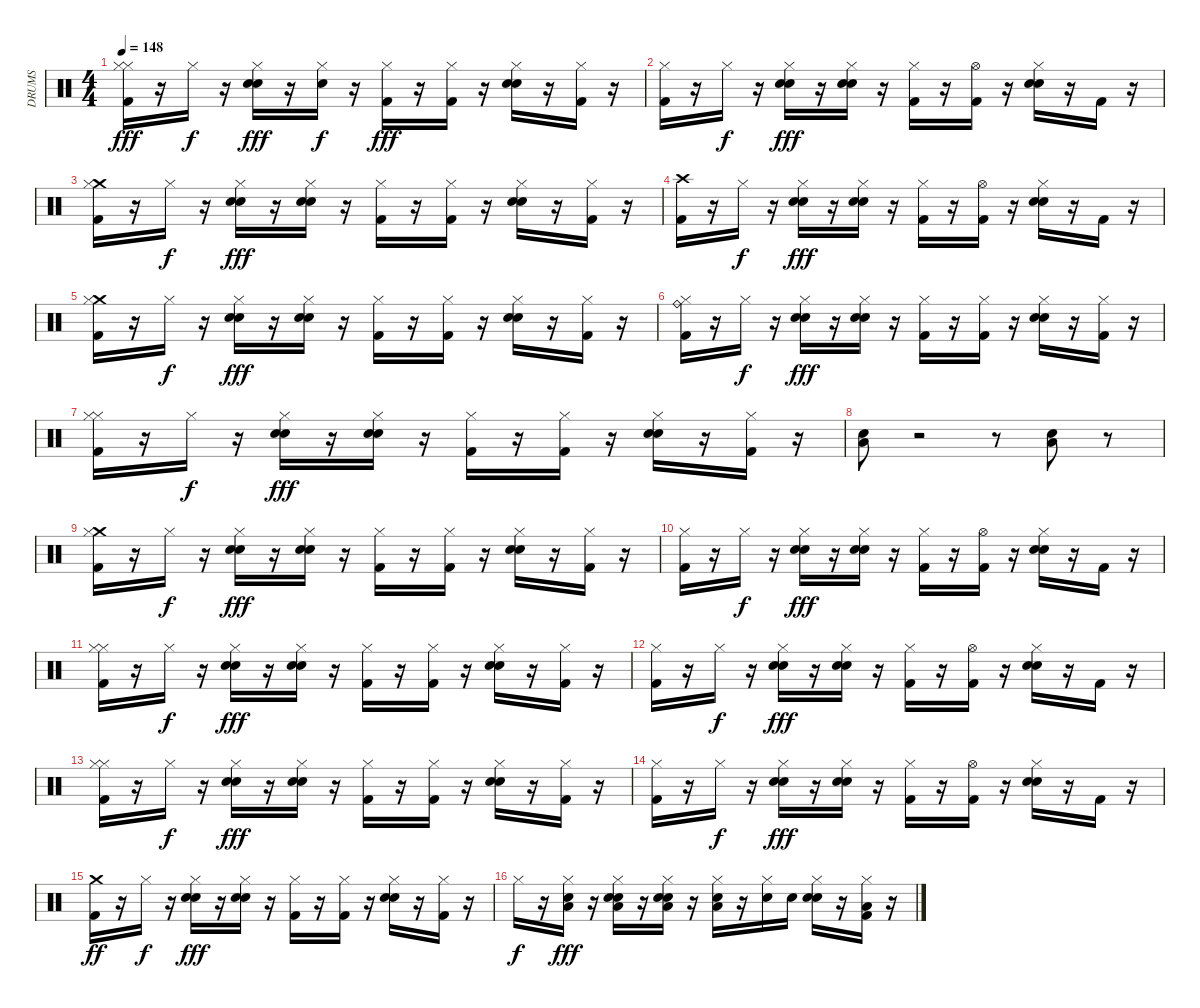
\track ("DRUMS" "DRUMS") {instrument percussion}
\staff {score}
\articulation defaults
\ts (4 4)
\tempo 148
\clef neutral
\ks c
("Hi-Hat (closed)" "Kick (hit) 2" "Hi-Hat (closed)").16{dy fff} r.16 "Hi-Hat (closed)".16{dy f} r.16 ("Hi-Hat (closed)" "Hand Clap (hit)" "Snare (hit) 2").16{dy fff} r.16 ("Hand Clap (hit)" "Hi-Hat (closed)").16{dy f} r.16 ("Hi-Hat (closed)" "Kick (hit) 2").16{dy fff} r.16 ("Hi-Hat (closed)" "Kick (hit) 2").16 r.16 ("Hi-Hat (closed)" "Hand Clap (hit)" "Snare (hit) 2").16 r.16 ("Hi-Hat (closed)" "Kick (hit) 2").16 r.16 |
("Hi-Hat (closed)" "Kick (hit) 2").16 r.16 "Hi-Hat (closed)".16{dy f} r.16 ("Hi-Hat (closed)" "Hand Clap (hit)" "Snare (hit) 2").16{dy fff} r.16 ("Hi-Hat (closed)" "Hand Clap (hit)" "Snare (hit) 2").16 r.16 ("Hi-Hat (closed)" "Kick (hit) 2").16 r.16 ("Hi-Hat (open)" "Kick (hit) 2").16 r.16 ("Hand Clap (hit)" "Snare (hit) 2" "Hi-Hat (closed)").16 r.16 "Kick (hit) 2".16 r.16 |
("Crash medium (hit)" "Kick (hit) 2" "Hi-Hat (closed)").16 r.16 "Hi-Hat (closed)".16{dy f} r.16 ("Hi-Hat (closed)" "Hand Clap (hit)" "Snare (hit) 2").16{dy fff} r.16 ("Snare (hit) 2" "Hand Clap (hit)" "Hi-Hat (closed)").16 r.16 ("Hi-Hat (closed)" "Kick (hit) 2").16 r.16 ("Hi-Hat (closed)" "Kick (hit) 2").16 r.16 ("Hi-Hat (closed)" "Hand Clap (hit)" "Snare (hit) 2").16 r.16 ("Hi-Hat (closed)" "Kick (hit) 2").16 r.16 |
("Crash high (hit)" "Kick (hit) 2").16 r.16 "Hi-Hat (closed)".16{dy f} r.16 ("Hi-Hat (closed)" "Hand Clap (hit)" "Snare (hit) 2").16{dy fff} r.16 ("Hi-Hat (closed)" "Hand Clap (hit)" "Snare (hit) 2").16 r.16 ("Hi-Hat (closed)" "Kick (hit) 2").16 r.16 ("Hi-Hat (open)" "Kick (hit) 2").16 r.16 ("Hand Clap (hit)" "Snare (hit) 2" "Hi-Hat (closed)").16 r.16 "Kick (hit) 2".16 r.16 |
("Crash medium (hit)" "Kick (hit) 2" "Hi-Hat (closed)").16 r.16 "Hi-Hat (closed)".16{dy f} r.16 ("Hi-Hat (closed)" "Hand Clap (hit)" "Snare (hit) 2").16{dy fff} r.16 ("Snare (hit) 2" "Hand Clap (hit)" "Hi-Hat (closed)").16 r.16 ("Hi-Hat (closed)" "Kick (hit) 2").16 r.16 ("Hi-Hat (closed)" "Kick (hit) 2").16 r.16 ("Hi-Hat (closed)" "Hand Clap (hit)" "Snare (hit) 2").16 r.16 ("Hi-Hat (closed)" "Kick (hit) 2").16 r.16 |
("Ride (bell)" "Kick (hit) 2" "Hi-Hat (closed)").16 r.16 "Hi-Hat (closed)".16{dy f} r.16 ("Hi-Hat (closed)" "Hand Clap (hit)" "Snare (hit) 2").16{dy fff} r.16 ("Snare (hit) 2" "Hand Clap (hit)" "Hi-Hat (closed)").16 r.16 ("Hi-Hat (closed)" "Kick (hit) 2").16 r.16 ("Hi-Hat (closed)" "Kick (hit) 2").16 r.16 ("Hi-Hat (closed)" "Hand Clap (hit)" "Snare (hit) 2").16 r.16 ("Hi-Hat (closed)" "Kick (hit) 2").16 r.16 |
("Hi-Hat (closed)" "Kick (hit) 2" "Hi-Hat (closed)").16 r.16 "Hi-Hat (closed)".16{dy f} r.16 ("Hi-Hat (closed)" "Hand Clap (hit)" "Snare (hit) 2").16{dy fff} r.16 ("Snare (hit) 2" "Hand Clap (hit)" "Hi-Hat (closed)").16 r.16 ("Hi-Hat (closed)" "Kick (hit) 2").16 r.16 ("Hi-Hat (closed)" "Kick (hit) 2").16 r.16 ("Hi-Hat (closed)" "Hand Clap (hit)" "Snare (hit) 2").16 r.16 ("Hi-Hat (closed)" "Kick (hit) 2").16 r.16 |
("Snare (hit) 2" "Low Floor Tom (hit)").8 r.2 r.8 ("Low Floor Tom (hit)" "Snare (hit) 2").8 r.8 |
("Crash medium (hit)" "Kick (hit) 2" "Hi-Hat (closed)").16 r.16 "Hi-Hat (closed)".16{dy f} r.16 ("Hi-Hat (closed)" "Hand Clap (hit)" "Snare (hit) 2").16{dy fff} r.16 ("Snare (hit) 2" "Hand Clap (hit)" "Hi-Hat (closed)").16 r.16 ("Hi-Hat (closed)" "Kick (hit) 2").16 r.16 ("Hi-Hat (closed)" "Kick (hit) 2").16 r.16 ("Hi-Hat (closed)" "Hand Clap (hit)" "Snare (hit) 2").16 r.16 ("Hi-Hat (closed)" "Kick (hit) 2").16 r.16 |
("Hi-Hat (closed)" "Kick (hit) 2").16 r.16 "Hi-Hat (closed)".16{dy f} r.16 ("Hi-Hat (closed)" "Hand Clap (hit)" "Snare (hit) 2").16{dy fff} r.16 ("Hi-Hat (closed)" "Hand Clap (hit)" "Snare (hit) 2").16 r.16 ("Hi-Hat (closed)" "Kick (hit) 2").16 r.16 ("Hi-Hat (open)" "Kick (hit) 2").16 r.16 ("Hand Clap (hit)" "Snare (hit) 2" "Hi-Hat (closed)").16 r.16 "Kick (hit) 2".16 r.16 |
("Hi-Hat (closed)" "Kick (hit) 2" "Hi-Hat (closed)").16 r.16 "Hi-Hat (closed)".16{dy f} r.16 ("Hi-Hat (closed)" "Hand Clap (hit)" "Snare (hit) 2").16{dy fff} r.16 ("Snare (hit) 2" "Hand Clap (hit)" "Hi-Hat (closed)").16 r.16 ("Hi-Hat (closed)" "Kick (hit) 2").16 r.16 ("Hi-Hat (closed)" "Kick (hit) 2").16 r.16 ("Hi-Hat (closed)" "Hand Clap (hit)" "Snare (hit) 2").16 r.16 ("Hi-Hat (closed)" "Kick (hit) 2").16 r.16 |
("Hi-Hat (closed)" "Kick (hit) 2").16 r.16 "Hi-Hat (closed)".16{dy f} r.16 ("Hi-Hat (closed)" "Hand Clap (hit)" "Snare (hit) 2").16{dy fff} r.16 ("Hi-Hat (closed)" "Hand Clap (hit)" "Snare (hit) 2").16 r.16 ("Hi-Hat (closed)" "Kick (hit) 2").16 r.16 ("Hi-Hat (open)" "Kick (hit) 2").16 r.16 ("Hand Clap (hit)" "Snare (hit) 2" "Hi-Hat (closed)").16 r.16 "Kick (hit) 2".16 r.16 |
("Hi-Hat (closed)" "Kick (hit) 2" "Hi-Hat (closed)").16 r.16 "Hi-Hat (closed)".16{dy f} r.16 ("Hi-Hat (closed)" "Hand Clap (hit)" "Snare (hit) 2").16{dy fff} r.16 ("Snare (hit) 2" "Hand Clap (hit)" "Hi-Hat (closed)").16 r.16 ("Hi-Hat (closed)" "Kick (hit) 2").16 r.16 ("Hi-Hat (closed)" "Kick (hit) 2").16 r.16 ("Hi-Hat (closed)" "Hand Clap (hit)" "Snare (hit) 2").16 r.16 ("Hi-Hat (closed)" "Kick (hit) 2").16 r.16 |
("Hi-Hat (closed)" "Kick (hit) 2").16 r.16 "Hi-Hat (closed)".16{dy f} r.16 ("Hi-Hat (closed)" "Hand Clap (hit)" "Snare (hit) 2").16{dy fff} r.16 ("Hi-Hat (closed)" "Hand Clap (hit)" "Snare (hit) 2").16 r.16 ("Hi-Hat (closed)" "Kick (hit) 2").16 r.16 ("Hi-Hat (open)" "Kick (hit) 2").16 r.16 ("Hand Clap (hit)" "Snare (hit) 2" "Hi-Hat (closed)").16 r.16 "Kick (hit) 2".16 r.16 |
("Kick (hit) 2" "Crash medium (hit)").16{dy ff} r.16 "Hi-Hat (closed)".16{dy f} r.16 ("Snare (hit) 2" "Hi-Hat (closed)" "Hand Clap (hit)").16{dy fff} r.16 ("Hi-Hat (closed)" "Snare (hit) 2" "Hand Clap (hit)").16 r.16 ("Hi-Hat (closed)" "Kick (hit) 2").16 r.16 ("Hi-Hat (closed)" "Kick (hit) 2").16 r.16 ("Hi-Hat (closed)" "Snare (hit) 2" "Hand Clap (hit)").16 r.16 ("Hi-Hat (closed)" "Kick (hit) 2").16 r.16 |
"Hi-Hat (closed)".16{dy f} r.16 ("Low Floor Tom (hit)" "Hi-Hat (closed)" "Snare (hit) 2").16{dy fff} r.16 ("Low Floor Tom (hit)" "Hand Clap (hit)" "Hi-Hat (closed)" "Snare (hit) 2").16 r.16 ("Low Floor Tom (hit)" "Hi-Hat (closed)" "Snare (hit) 2" "Hand Clap (hit)").16 r.16 ("Low Floor Tom (hit)" "Hi-Hat (closed)" "Snare (hit) 2").16 r.16 ("Hi-Hat (closed)" "Snare (hit) 2").16 "Snare (hit) 2".16 ("Hi-Hat (closed)" "Snare (hit) 2" "Hand Clap (hit)").16 r.16 ("Hi-Hat (closed)" "Low Floor Tom (hit)" "Kick (hit) 2").16 r.16
